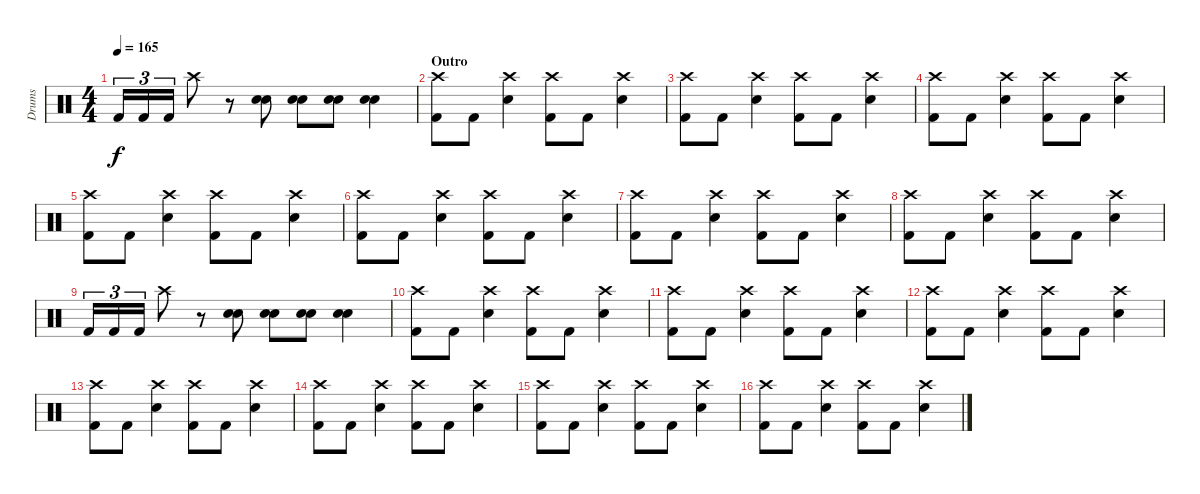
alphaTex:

\track ("Drums" "Drums") {instrument percussion}
\staff {score}
\articulation defaults
\ts (4 4)
\tempo 165
\clef neutral
\ks c "Kick (hit) 2".16{tu (3 2) dy f} "Kick (hit) 2".16{tu (3 2)} "Kick (hit) 2".16{tu (3 2)} "Crash high (hit)".8
r.8 ("Snare (hit) 2" "Snare (hit) 2").8 ("Snare (hit) 2" "Snare (hit) 2").8 ("Snare (hit) 2" "Snare (hit) 2").8 ("Snare (hit) 2" "Snare (hit) 2").4 |
\section ("" "Outro")
("Crash high (hit)" "Kick (hit) 2").8 "Kick (hit) 2".8 ("Crash high (hit)" "Snare (hit) 2").4 ("Crash high (hit)" "Kick (hit) 2").8 "Kick (hit) 2".8 ("Crash high (hit)" "Snare (hit) 2").4 |
("Crash high (hit)" "Kick (hit) 2").8 "Kick (hit) 2".8 ("Crash high (hit)" "Snare (hit) 2").4 ("Crash high (hit)" "Kick (hit) 2").8 "Kick (hit) 2".8 ("Crash high (hit)" "Snare (hit) 2").4 |
("Crash high (hit)" "Kick (hit) 2").8 "Kick (hit) 2".8 ("Crash high (hit)" "Snare (hit) 2").4 ("Crash high (hit)" "Kick (hit) 2").8 "Kick (hit) 2".8 ("Crash high (hit)" "Snare (hit) 2").4 |
("Crash high (hit)" "Kick (hit) 2").8 "Kick (hit) 2".8 ("Crash high (hit)" "Snare (hit) 2").4 ("Crash high (hit)" "Kick (hit) 2").8 "Kick (hit) 2".8 ("Crash high (hit)" "Snare (hit) 2").4 |
("Crash high (hit)" "Kick (hit) 2").8 "Kick (hit) 2".8 ("Crash high (hit)" "Snare (hit) 2").4 ("Crash high (hit)" "Kick (hit) 2").8 "Kick (hit) 2".8 ("Crash high (hit)" "Snare (hit) 2").4 |
("Crash high (hit)" "Kick (hit) 2").8 "Kick (hit) 2".8 ("Crash high (hit)" "Snare (hit) 2").4 ("Crash high (hit)" "Kick (hit) 2").8 "Kick (hit) 2".8 ("Crash high (hit)" "Snare (hit) 2").4 |
("Crash high (hit)" "Kick (hit) 2").8 "Kick (hit) 2".8 ("Crash high (hit)" "Snare (hit) 2").4 ("Crash high (hit)" "Kick (hit) 2").8 "Kick (hit) 2".8 ("Crash high (hit)" "Snare (hit) 2").4 |
"Kick (hit) 2".16{tu (3 2)} "Kick (hit) 2".16{tu (3 2)} "Kick (hit) 2".16{tu (3 2)} "Crash high (hit)".8 r.8 ("Snare (hit) 2" "Snare (hit) 2").8 ("Snare (hit) 2" "Snare (hit) 2").8 ("Snare (hit) 2" "Snare (hit) 2").8 ("Snare (hit) 2" "Snare (hit) 2").4 |
("Crash high (hit)" "Kick (hit) 2").8 "Kick (hit) 2".8 ("Crash high (hit)" "Snare (hit) 2").4 ("Crash high (hit)" "Kick (hit) 2").8 "Kick (hit) 2".8 ("Crash high (hit)" "Snare (hit) 2").4 |
("Crash high (hit)" "Kick (hit) 2").8 "Kick (hit) 2".8 ("Crash high (hit)" "Snare (hit) 2").4 ("Crash high (hit)" "Kick (hit) 2").8 "Kick (hit) 2".8 ("Crash high (hit)" "Snare (hit) 2").4 |
("Crash high (hit)" "Kick (hit) 2").8 "Kick (hit) 2".8 ("Crash high (hit)" "Snare (hit) 2").4 ("Crash high (hit)" "Kick (hit) 2").8 "Kick (hit) 2".8 ("Crash high (hit)" "Snare (hit) 2").4 |
("Crash high (hit)" "Kick (hit) 2").8 "Kick (hit) 2".8 ("Crash high (hit)" "Snare (hit) 2").4 ("Crash high (hit)" "Kick (hit) 2").8 "Kick (hit) 2".8 ("Crash high (hit)" "Snare (hit) 2").4 |
("Crash high (hit)" "Kick (hit) 2").8 "Kick (hit) 2".8 ("Crash high (hit)" "Snare (hit) 2").4 ("Crash high (hit)" "Kick (hit) 2").8 "Kick (hit) 2".8 ("Crash high (hit)" "Snare (hit) 2").4 |
("Crash high (hit)" "Kick (hit) 2").8 "Kick (hit) 2".8 ("Crash high (hit)" "Snare (hit) 2").4 ("Crash high (hit)" "Kick (hit) 2").8 "Kick (hit) 2".8 ("Crash high (hit)" "Snare (hit) 2").4 |
("Crash high (hit)" "Kick (hit) 2").8 "Kick (hit) 2".8 ("Crash high (hit)" "Snare (hit) 2").4 ("Crash high (hit)" "Kick (hit) 2").8 "Kick (hit) 2".8 ("Crash high (hit)" "Snare (hit) 2").4
